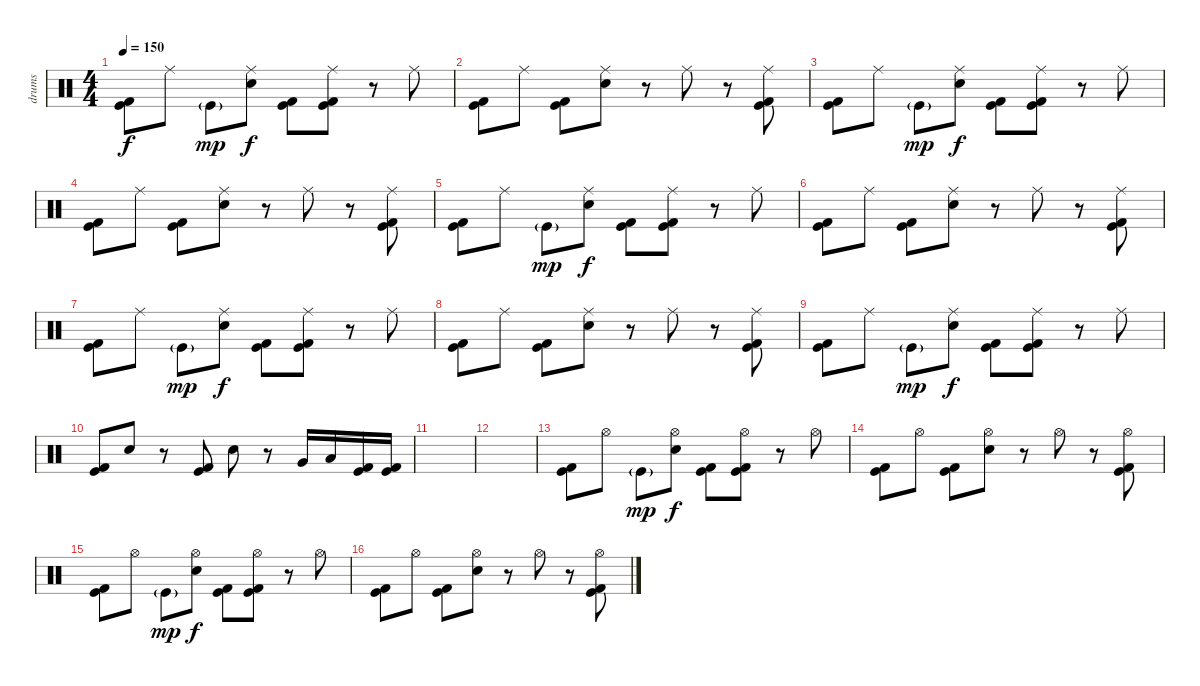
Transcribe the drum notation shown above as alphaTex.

\track ("drums" "drums") {instrument percussion}
\staff {score}
\articulation defaults
\ts (4 4)
\tempo 150
\clef neutral
\ks c
("Kick (hit)" "Kick (hit) 2").8{dy f} "Ride (middle)".8 "Kick (hit)"{g}.8{dy mp} ("Electric Snare (hit)" "Ride (middle)").8{dy f} ("Kick (hit)" "Kick (hit) 2").8 ("Kick (hit)" "Kick (hit) 2" "Ride (middle)").8 r.8 "Ride (middle)".8 |
("Kick (hit)" "Kick (hit) 2").8 "Ride (middle)".8 ("Kick (hit)" "Kick (hit) 2").8 ("Electric Snare (hit)" "Ride (middle)").8 r.8 "Ride (middle)".8 r.8 ("Kick (hit)" "Kick (hit) 2" "Ride (middle)").8 |
("Kick (hit)" "Kick (hit) 2").8 "Ride (middle)".8 "Kick (hit)"{g}.8{dy mp} ("Electric Snare (hit)" "Ride (middle)").8{dy f} ("Kick (hit)" "Kick (hit) 2").8 ("Kick (hit)" "Kick (hit) 2" "Ride (middle)").8 r.8 "Ride (middle)".8 |
("Kick (hit)" "Kick (hit) 2").8 "Ride (middle)".8 ("Kick (hit)" "Kick (hit) 2").8 ("Electric Snare (hit)" "Ride (middle)").8 r.8 "Ride (middle)".8 r.8 ("Kick (hit)" "Kick (hit) 2" "Ride (middle)").8 |
("Kick (hit)" "Kick (hit) 2").8 "Ride (middle)".8 "Kick (hit)"{g}.8{dy mp} ("Electric Snare (hit)" "Ride (middle)").8{dy f} ("Kick (hit)" "Kick (hit) 2").8 ("Kick (hit)" "Kick (hit) 2" "Ride (middle)").8 r.8 "Ride (middle)".8 |
("Kick (hit)" "Kick (hit) 2").8 "Ride (middle)".8 ("Kick (hit)" "Kick (hit) 2").8 ("Electric Snare (hit)" "Ride (middle)").8 r.8 "Ride (middle)".8 r.8 ("Kick (hit)" "Kick (hit) 2" "Ride (middle)").8 |
("Kick (hit)" "Kick (hit) 2").8 "Ride (middle)".8 "Kick (hit)"{g}.8{dy mp} ("Electric Snare (hit)" "Ride (middle)").8{dy f} ("Kick (hit)" "Kick (hit) 2").8 ("Kick (hit)" "Kick (hit) 2" "Ride (middle)").8 r.8 "Ride (middle)".8 |
("Kick (hit)" "Kick (hit) 2").8 "Ride (middle)".8 ("Kick (hit)" "Kick (hit) 2").8 ("Electric Snare (hit)" "Ride (middle)").8 r.8 "Ride (middle)".8 r.8 ("Kick (hit)" "Kick (hit) 2" "Ride (middle)").8 |
("Kick (hit)" "Kick (hit) 2").8 "Ride (middle)".8 "Kick (hit)"{g}.8{dy mp} ("Electric Snare (hit)" "Ride (middle)").8{dy f} ("Kick (hit)" "Kick (hit) 2").8 ("Kick (hit)" "Kick (hit) 2" "Ride (middle)").8 r.8 "Ride (middle)".8 |
("Kick (hit)" "Kick (hit) 2").8 "Electric Snare (hit)".8 r.8 ("Kick (hit) 2" "Kick (hit)").8 "Electric Snare (hit)".8 r.8 "Very Low Tom (hit)".16 "Low Floor Tom (hit)".16 ("Kick (hit)" "Kick (hit) 2").16 ("Kick (hit)" "Kick (hit) 2").16 |
|
|
("Kick (hit)" "Kick (hit) 2").8 "Hi-Hat (open)".8 "Kick (hit)"{g}.8{dy mp} ("Electric Snare (hit)" "Hi-Hat (open)").8{dy f} ("Kick (hit)" "Kick (hit) 2").8 ("Kick (hit)" "Kick (hit) 2" "Hi-Hat (open)").8 r.8 "Hi-Hat (open)".8 |
("Kick (hit)" "Kick (hit) 2").8 "Hi-Hat (open)".8 ("Kick (hit)" "Kick (hit) 2").8 ("Electric Snare (hit)" "Hi-Hat (open)").8 r.8 "Hi-Hat (open)".8 r.8 ("Kick (hit)" "Kick (hit) 2" "Hi-Hat (open)").8 |
("Kick (hit)" "Kick (hit) 2").8 "Hi-Hat (open)".8 "Kick (hit)"{g}.8{dy mp} ("Electric Snare (hit)" "Hi-Hat (open)").8{dy f} ("Kick (hit)" "Kick (hit) 2").8 ("Kick (hit)" "Kick (hit) 2" "Hi-Hat (open)").8 r.8 "Hi-Hat (open)".8 |
("Kick (hit)" "Kick (hit) 2").8 "Hi-Hat (open)".8 ("Kick (hit)" "Kick (hit) 2").8 ("Electric Snare (hit)" "Hi-Hat (open)").8 r.8 "Hi-Hat (open)".8 r.8 ("Kick (hit)" "Kick (hit) 2" "Hi-Hat (open)").8
